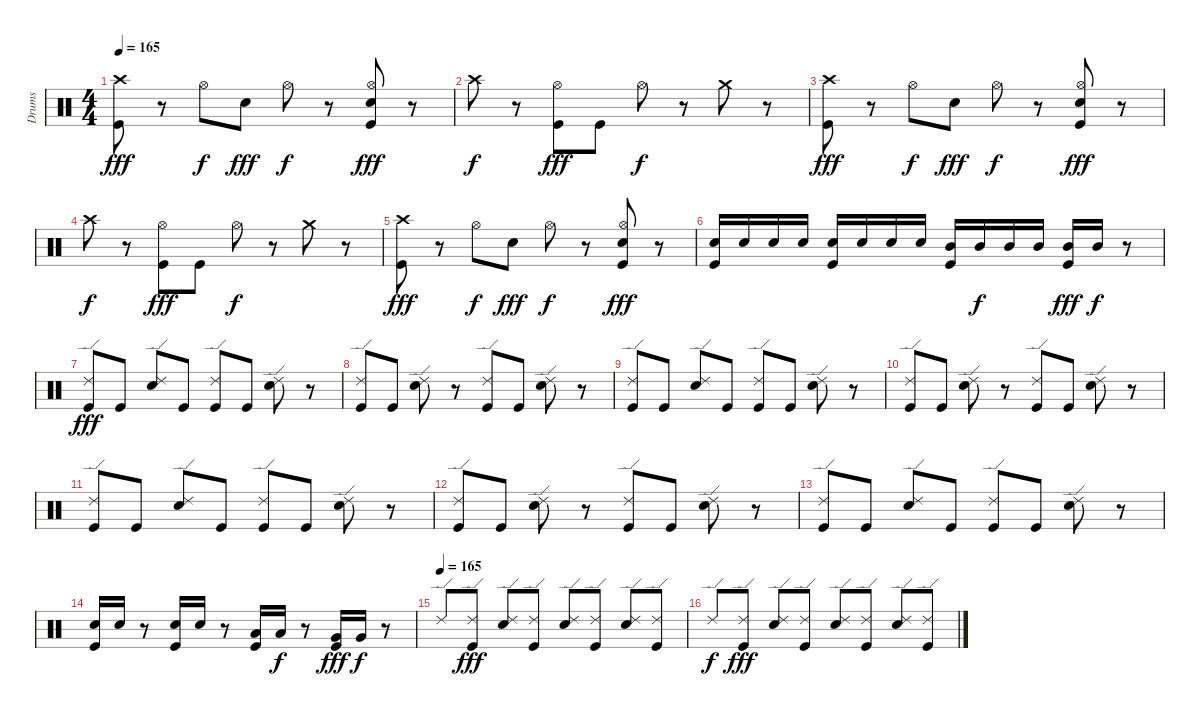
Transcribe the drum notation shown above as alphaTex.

\track ("Drums" "Drums") {instrument percussion}
\staff {score}
\articulation defaults
\ts (4 4)
\tempo 165
\clef neutral
\ks c
("Crash high (hit)" "Kick (hit)").8{dy fff} r.8 "Hi-Hat (open)".8{dy f} "Snare (hit) 2".8{dy fff} "Hi-Hat (open)".8{dy f} r.8 ("Hi-Hat (open)" "Snare (hit) 2" "Kick (hit)").8{dy fff} r.8 |
"Crash high (hit)".8{dy f} r.8 ("Hi-Hat (open)" "Kick (hit)").8{dy fff} "Kick (hit)".8 "Hi-Hat (open)".8{dy f} r.8 "Crash medium (hit)".8 r.8 |
("Crash high (hit)" "Kick (hit)").8{dy fff} r.8 "Hi-Hat (open)".8{dy f} "Snare (hit) 2".8{dy fff} "Hi-Hat (open)".8{dy f} r.8 ("Hi-Hat (open)" "Snare (hit) 2" "Kick (hit)").8{dy fff} r.8 |
"Crash high (hit)".8{dy f} r.8 ("Hi-Hat (open)" "Kick (hit)").8{dy fff} "Kick (hit)".8 "Hi-Hat (open)".8{dy f} r.8 "Crash medium (hit)".8 r.8 |
("Crash high (hit)" "Kick (hit)").8{dy fff} r.8 "Hi-Hat (open)".8{dy f} "Snare (hit) 2".8{dy fff} "Hi-Hat (open)".8{dy f} r.8 ("Hi-Hat (open)" "Snare (hit) 2" "Kick (hit)").8{dy fff} r.8 |
("Snare (hit) 2" "Kick (hit)").16 "Snare (hit) 2".16 "Snare (hit) 2".16 "Snare (hit) 2".16 ("Snare (hit) 2" "Kick (hit)").16 "Snare (hit) 2".16 "Snare (hit) 2".16 "Snare (hit) 2".16 ("Mid Tom (hit)" "Kick (hit)").16 "Mid Tom (hit)".16{dy f} "Mid Tom (hit)".16 "Mid Tom (hit)".16 ("Mid Tom (hit)" "Kick (hit)").16{dy fff} "Mid Tom (hit)".16{dy f} r.8 |
("Ride (edge) 2" "Kick (hit)").8{dy fff} "Kick (hit)".8 ("Ride (edge) 2" "Snare (hit) 2").8 "Kick (hit)".8 ("Ride (edge) 2" "Kick (hit)").8 "Kick (hit)".8 ("Ride (edge) 2" "Snare (hit) 2").8 r.8 |
("Ride (edge) 2" "Kick (hit)").8 "Kick (hit)".8 ("Ride (edge) 2" "Snare (hit) 2").8 r.8 ("Ride (edge) 2" "Kick (hit)").8 "Kick (hit)".8 ("Ride (edge) 2" "Snare (hit) 2").8 r.8 |
("Ride (edge) 2" "Kick (hit)").8 "Kick (hit)".8 ("Ride (edge) 2" "Snare (hit) 2").8 "Kick (hit)".8 ("Ride (edge) 2" "Kick (hit)").8 "Kick (hit)".8 ("Ride (edge) 2" "Snare (hit) 2").8 r.8 |
("Ride (edge) 2" "Kick (hit)").8 "Kick (hit)".8 ("Ride (edge) 2" "Snare (hit) 2").8 r.8 ("Ride (edge) 2" "Kick (hit)").8 "Kick (hit)".8 ("Ride (edge) 2" "Snare (hit) 2").8 r.8 |
("Ride (edge) 2" "Kick (hit)").8 "Kick (hit)".8 ("Ride (edge) 2" "Snare (hit) 2").8 "Kick (hit)".8 ("Ride (edge) 2" "Kick (hit)").8 "Kick (hit)".8 ("Ride (edge) 2" "Snare (hit) 2").8 r.8 |
("Ride (edge) 2" "Kick (hit)").8 "Kick (hit)".8 ("Ride (edge) 2" "Snare (hit) 2").8 r.8 ("Ride (edge) 2" "Kick (hit)").8 "Kick (hit)".8 ("Ride (edge) 2" "Snare (hit) 2").8 r.8 |
("Ride (edge) 2" "Kick (hit)").8 "Kick (hit)".8 ("Ride (edge) 2" "Snare (hit) 2").8 "Kick (hit)".8 ("Ride (edge) 2" "Kick (hit)").8 "Kick (hit)".8 ("Ride (edge) 2" "Snare (hit) 2").8 r.8 |
("Snare (hit) 2" "Kick (hit)").16 "Snare (hit) 2".16 r.8 ("Snare (hit) 2" "Kick (hit)").16 "Snare (hit) 2".16 r.8 ("Low Tom (hit)" "Kick (hit)").16 "Low Tom (hit)".16{dy f} r.8 ("Very Low Tom (hit)" "Kick (hit)").16{dy fff} "Very Low Tom (hit)".16{dy f} r.8 |
\tempo (165)
"Ride (edge) 2".8 ("Ride (edge) 2" "Kick (hit)").8{dy fff} ("Ride (edge) 2" "Snare (hit) 2").8 ("Ride (edge) 2" "Kick (hit)").8 ("Ride (edge) 2" "Snare (hit) 2").8 ("Ride (edge) 2" "Kick (hit)").8 ("Ride (edge) 2" "Snare (hit) 2").8 ("Ride (edge) 2" "Kick (hit)").8 |
"Ride (edge) 2".8{dy f} ("Ride (edge) 2" "Kick (hit)").8{dy fff} ("Ride (edge) 2" "Snare (hit) 2").8 ("Ride (edge) 2" "Kick (hit)").8 ("Ride (edge) 2" "Snare (hit) 2").8 ("Ride (edge) 2" "Kick (hit)").8 ("Ride (edge) 2" "Snare (hit) 2").8 ("Ride (edge) 2" "Kick (hit)").8
